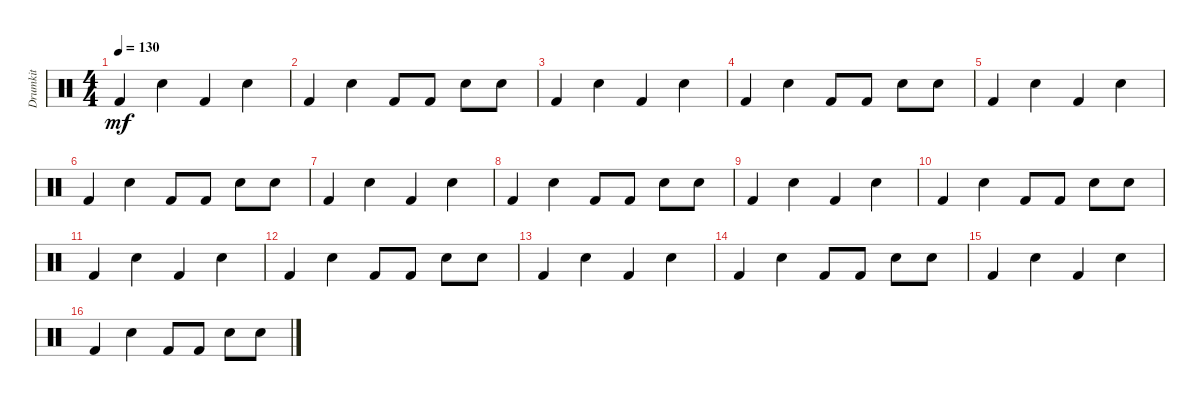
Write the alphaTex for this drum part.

\track ("Drumkit" "Drumkit") {instrument percussion}
\staff {score}
\articulation defaults
\ts (4 4)
\tempo 130
\clef neutral
\ks c "Kick (hit) 2".4{dy mf} "Snare (hit) 2".4 "Kick (hit) 2".4 "Snare (hit) 2".4
|
"Kick (hit) 2".4 "Snare (hit) 2".4 "Kick (hit) 2".8 "Kick (hit) 2".8 "Snare (hit) 2".8 "Snare (hit) 2".8 |
"Kick (hit) 2".4 "Snare (hit) 2".4 "Kick (hit) 2".4 "Snare (hit) 2".4 |
"Kick (hit) 2".4 "Snare (hit) 2".4 "Kick (hit) 2".8 "Kick (hit) 2".8 "Snare (hit) 2".8 "Snare (hit) 2".8 |
"Kick (hit) 2".4 "Snare (hit) 2".4 "Kick (hit) 2".4 "Snare (hit) 2".4 |
"Kick (hit) 2".4 "Snare (hit) 2".4 "Kick (hit) 2".8 "Kick (hit) 2".8 "Snare (hit) 2".8 "Snare (hit) 2".8 |
"Kick (hit) 2".4 "Snare (hit) 2".4 "Kick (hit) 2".4 "Snare (hit) 2".4 |
"Kick (hit) 2".4 "Snare (hit) 2".4 "Kick (hit) 2".8 "Kick (hit) 2".8 "Snare (hit) 2".8 "Snare (hit) 2".8 |
"Kick (hit) 2".4 "Snare (hit) 2".4 "Kick (hit) 2".4 "Snare (hit) 2".4 |
"Kick (hit) 2".4 "Snare (hit) 2".4 "Kick (hit) 2".8 "Kick (hit) 2".8 "Snare (hit) 2".8 "Snare (hit) 2".8 |
"Kick (hit) 2".4 "Snare (hit) 2".4 "Kick (hit) 2".4 "Snare (hit) 2".4 |
"Kick (hit) 2".4 "Snare (hit) 2".4 "Kick (hit) 2".8 "Kick (hit) 2".8 "Snare (hit) 2".8 "Snare (hit) 2".8 |
"Kick (hit) 2".4 "Snare (hit) 2".4 "Kick (hit) 2".4 "Snare (hit) 2".4 |
"Kick (hit) 2".4 "Snare (hit) 2".4 "Kick (hit) 2".8 "Kick (hit) 2".8 "Snare (hit) 2".8 "Snare (hit) 2".8 |
"Kick (hit) 2".4 "Snare (hit) 2".4 "Kick (hit) 2".4 "Snare (hit) 2".4 |
"Kick (hit) 2".4 "Snare (hit) 2".4 "Kick (hit) 2".8 "Kick (hit) 2".8 "Snare (hit) 2".8 "Snare (hit) 2".8
